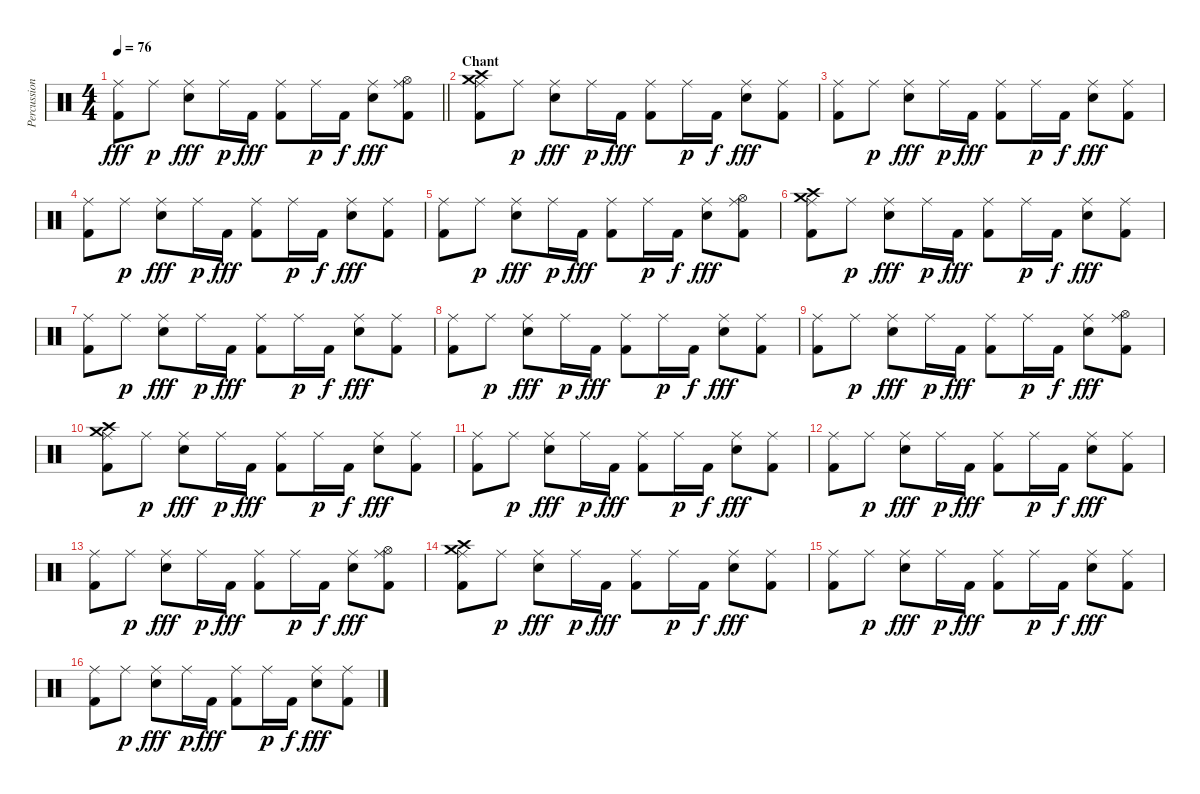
\track ("Percussions" "Percussion") {instrument percussion}
\staff {score}
\articulation defaults
\ts (4 4)
\tempo 76
\clef neutral
\barLineRight lightlight
\ks c
("Ride (middle)" "Kick (hit) 2").8{dy fff} "Ride (middle)".8{dy p} ("Ride (middle)" "Electric Snare (hit)").8{dy fff} "Ride (middle)".16{dy p} "Kick (hit) 2".16{dy fff} ("Ride (middle)" "Kick (hit) 2").8 "Ride (middle)".16{dy p} "Kick (hit) 2".16{dy f} ("Ride (middle)" "Electric Snare (hit)").8{dy fff} ("Ride (middle)" "Hi-Hat (open)" "Kick (hit) 2").8 |
\section ("" "Chant")
("Ride (middle)" "Crash medium (hit)" "Crash high (hit)" "Kick (hit) 2").8 "Ride (middle)".8{dy p} ("Ride (middle)" "Electric Snare (hit)").8{dy fff} "Ride (middle)".16{dy p} "Kick (hit) 2".16{dy fff} ("Ride (middle)" "Kick (hit) 2").8 "Ride (middle)".16{dy p} "Kick (hit) 2".16{dy f} ("Ride (middle)" "Electric Snare (hit)").8{dy fff} ("Ride (middle)" "Kick (hit) 2").8 |
("Ride (middle)" "Kick (hit) 2").8 "Ride (middle)".8{dy p} ("Ride (middle)" "Electric Snare (hit)").8{dy fff} "Ride (middle)".16{dy p} "Kick (hit) 2".16{dy fff} ("Ride (middle)" "Kick (hit) 2").8 "Ride (middle)".16{dy p} "Kick (hit) 2".16{dy f} ("Ride (middle)" "Electric Snare (hit)").8{dy fff} ("Ride (middle)" "Kick (hit) 2").8 |
("Ride (middle)" "Kick (hit) 2").8 "Ride (middle)".8{dy p} ("Ride (middle)" "Electric Snare (hit)").8{dy fff} "Ride (middle)".16{dy p} "Kick (hit) 2".16{dy fff} ("Ride (middle)" "Kick (hit) 2").8 "Ride (middle)".16{dy p} "Kick (hit) 2".16{dy f} ("Ride (middle)" "Electric Snare (hit)").8{dy fff} ("Ride (middle)" "Kick (hit) 2").8 |
("Ride (middle)" "Kick (hit) 2").8 "Ride (middle)".8{dy p} ("Ride (middle)" "Electric Snare (hit)").8{dy fff} "Ride (middle)".16{dy p} "Kick (hit) 2".16{dy fff} ("Ride (middle)" "Kick (hit) 2").8 "Ride (middle)".16{dy p} "Kick (hit) 2".16{dy f} ("Ride (middle)" "Electric Snare (hit)").8{dy fff} ("Ride (middle)" "Hi-Hat (open)" "Kick (hit) 2").8 |
("Ride (middle)" "Crash medium (hit)" "Crash high (hit)" "Kick (hit) 2").8 "Ride (middle)".8{dy p} ("Ride (middle)" "Electric Snare (hit)").8{dy fff} "Ride (middle)".16{dy p} "Kick (hit) 2".16{dy fff} ("Ride (middle)" "Kick (hit) 2").8 "Ride (middle)".16{dy p} "Kick (hit) 2".16{dy f} ("Ride (middle)" "Electric Snare (hit)").8{dy fff} ("Ride (middle)" "Kick (hit) 2").8 |
("Ride (middle)" "Kick (hit) 2").8 "Ride (middle)".8{dy p} ("Ride (middle)" "Electric Snare (hit)").8{dy fff} "Ride (middle)".16{dy p} "Kick (hit) 2".16{dy fff} ("Ride (middle)" "Kick (hit) 2").8 "Ride (middle)".16{dy p} "Kick (hit) 2".16{dy f} ("Ride (middle)" "Electric Snare (hit)").8{dy fff} ("Ride (middle)" "Kick (hit) 2").8 |
("Ride (middle)" "Kick (hit) 2").8 "Ride (middle)".8{dy p} ("Ride (middle)" "Electric Snare (hit)").8{dy fff} "Ride (middle)".16{dy p} "Kick (hit) 2".16{dy fff} ("Ride (middle)" "Kick (hit) 2").8 "Ride (middle)".16{dy p} "Kick (hit) 2".16{dy f} ("Ride (middle)" "Electric Snare (hit)").8{dy fff} ("Ride (middle)" "Kick (hit) 2").8 |
("Ride (middle)" "Kick (hit) 2").8 "Ride (middle)".8{dy p} ("Ride (middle)" "Electric Snare (hit)").8{dy fff} "Ride (middle)".16{dy p} "Kick (hit) 2".16{dy fff} ("Ride (middle)" "Kick (hit) 2").8 "Ride (middle)".16{dy p} "Kick (hit) 2".16{dy f} ("Ride (middle)" "Electric Snare (hit)").8{dy fff} ("Ride (middle)" "Hi-Hat (open)" "Kick (hit) 2").8 |
("Ride (middle)" "Crash medium (hit)" "Crash high (hit)" "Kick (hit) 2").8 "Ride (middle)".8{dy p} ("Ride (middle)" "Electric Snare (hit)").8{dy fff} "Ride (middle)".16{dy p} "Kick (hit) 2".16{dy fff} ("Ride (middle)" "Kick (hit) 2").8 "Ride (middle)".16{dy p} "Kick (hit) 2".16{dy f} ("Ride (middle)" "Electric Snare (hit)").8{dy fff} ("Ride (middle)" "Kick (hit) 2").8 |
("Ride (middle)" "Kick (hit) 2").8 "Ride (middle)".8{dy p} ("Ride (middle)" "Electric Snare (hit)").8{dy fff} "Ride (middle)".16{dy p} "Kick (hit) 2".16{dy fff} ("Ride (middle)" "Kick (hit) 2").8 "Ride (middle)".16{dy p} "Kick (hit) 2".16{dy f} ("Ride (middle)" "Electric Snare (hit)").8{dy fff} ("Ride (middle)" "Kick (hit) 2").8 |
("Ride (middle)" "Kick (hit) 2").8 "Ride (middle)".8{dy p} ("Ride (middle)" "Electric Snare (hit)").8{dy fff} "Ride (middle)".16{dy p} "Kick (hit) 2".16{dy fff} ("Ride (middle)" "Kick (hit) 2").8 "Ride (middle)".16{dy p} "Kick (hit) 2".16{dy f} ("Ride (middle)" "Electric Snare (hit)").8{dy fff} ("Ride (middle)" "Kick (hit) 2").8 |
("Ride (middle)" "Kick (hit) 2").8 "Ride (middle)".8{dy p} ("Ride (middle)" "Electric Snare (hit)").8{dy fff} "Ride (middle)".16{dy p} "Kick (hit) 2".16{dy fff} ("Ride (middle)" "Kick (hit) 2").8 "Ride (middle)".16{dy p} "Kick (hit) 2".16{dy f} ("Ride (middle)" "Electric Snare (hit)").8{dy fff} ("Ride (middle)" "Hi-Hat (open)" "Kick (hit) 2").8 |
("Ride (middle)" "Crash medium (hit)" "Crash high (hit)" "Kick (hit) 2").8 "Ride (middle)".8{dy p} ("Ride (middle)" "Electric Snare (hit)").8{dy fff} "Ride (middle)".16{dy p} "Kick (hit) 2".16{dy fff} ("Ride (middle)" "Kick (hit) 2").8 "Ride (middle)".16{dy p} "Kick (hit) 2".16{dy f} ("Ride (middle)" "Electric Snare (hit)").8{dy fff} ("Ride (middle)" "Kick (hit) 2").8 |
("Ride (middle)" "Kick (hit) 2").8 "Ride (middle)".8{dy p} ("Ride (middle)" "Electric Snare (hit)").8{dy fff} "Ride (middle)".16{dy p} "Kick (hit) 2".16{dy fff} ("Ride (middle)" "Kick (hit) 2").8 "Ride (middle)".16{dy p} "Kick (hit) 2".16{dy f} ("Ride (middle)" "Electric Snare (hit)").8{dy fff} ("Ride (middle)" "Kick (hit) 2").8 |
("Ride (middle)" "Kick (hit) 2").8 "Ride (middle)".8{dy p} ("Ride (middle)" "Electric Snare (hit)").8{dy fff} "Ride (middle)".16{dy p} "Kick (hit) 2".16{dy fff} ("Ride (middle)" "Kick (hit) 2").8 "Ride (middle)".16{dy p} "Kick (hit) 2".16{dy f} ("Ride (middle)" "Electric Snare (hit)").8{dy fff} ("Ride (middle)" "Kick (hit) 2").8
